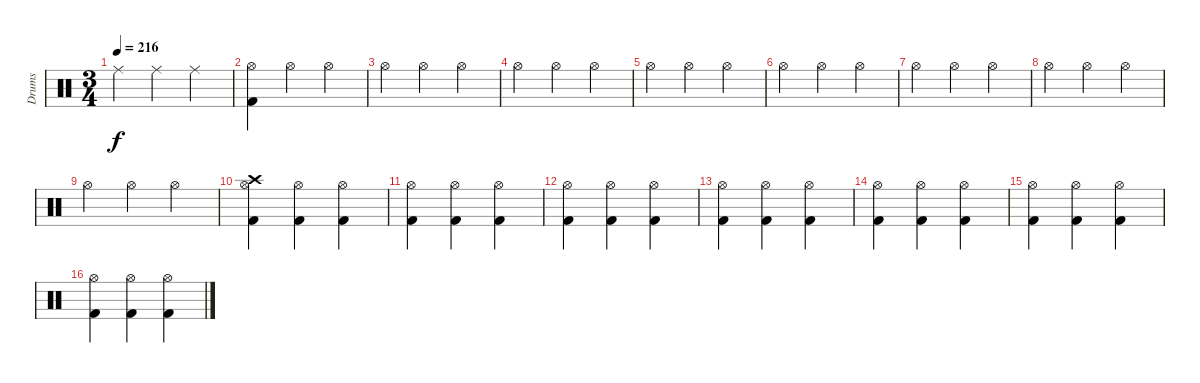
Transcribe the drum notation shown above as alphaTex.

\track ("Drums" "Drums") {instrument percussion}
\staff {score}
\articulation defaults
\ts (3 4)
\tempo 216
\clef neutral
\ks c "Ride (middle)".4{dy f} "Ride (middle)".4 "Ride (middle)".4
|
("Hi-Hat (open)" "Kick (hit) 2").4 "Hi-Hat (open)".4 "Hi-Hat (open)".4 |
"Hi-Hat (open)".4 "Hi-Hat (open)".4 "Hi-Hat (open)".4 |
"Hi-Hat (open)".4 "Hi-Hat (open)".4 "Hi-Hat (open)".4 |
"Hi-Hat (open)".4 "Hi-Hat (open)".4 "Hi-Hat (open)".4 |
"Hi-Hat (open)".4 "Hi-Hat (open)".4 "Hi-Hat (open)".4 |
"Hi-Hat (open)".4 "Hi-Hat (open)".4 "Hi-Hat (open)".4 |
"Hi-Hat (open)".4 "Hi-Hat (open)".4 "Hi-Hat (open)".4 |
"Hi-Hat (open)".4 "Hi-Hat (open)".4 "Hi-Hat (open)".4 |
("Crash high (hit)" "Hi-Hat (open)" "Kick (hit) 2").4 ("Hi-Hat (open)" "Kick (hit) 2").4 ("Hi-Hat (open)" "Kick (hit) 2").4 |
("Hi-Hat (open)" "Kick (hit) 2").4 ("Hi-Hat (open)" "Kick (hit) 2").4 ("Hi-Hat (open)" "Kick (hit) 2").4 |
("Hi-Hat (open)" "Kick (hit) 2").4 ("Hi-Hat (open)" "Kick (hit) 2").4 ("Hi-Hat (open)" "Kick (hit) 2").4 |
("Hi-Hat (open)" "Kick (hit) 2").4 ("Hi-Hat (open)" "Kick (hit) 2").4 ("Hi-Hat (open)" "Kick (hit) 2").4 |
("Hi-Hat (open)" "Kick (hit) 2").4 ("Hi-Hat (open)" "Kick (hit) 2").4 ("Hi-Hat (open)" "Kick (hit) 2").4 |
("Hi-Hat (open)" "Kick (hit) 2").4 ("Hi-Hat (open)" "Kick (hit) 2").4 ("Hi-Hat (open)" "Kick (hit) 2").4 |
("Hi-Hat (open)" "Kick (hit) 2").4 ("Hi-Hat (open)" "Kick (hit) 2").4 ("Hi-Hat (open)" "Kick (hit) 2").4
